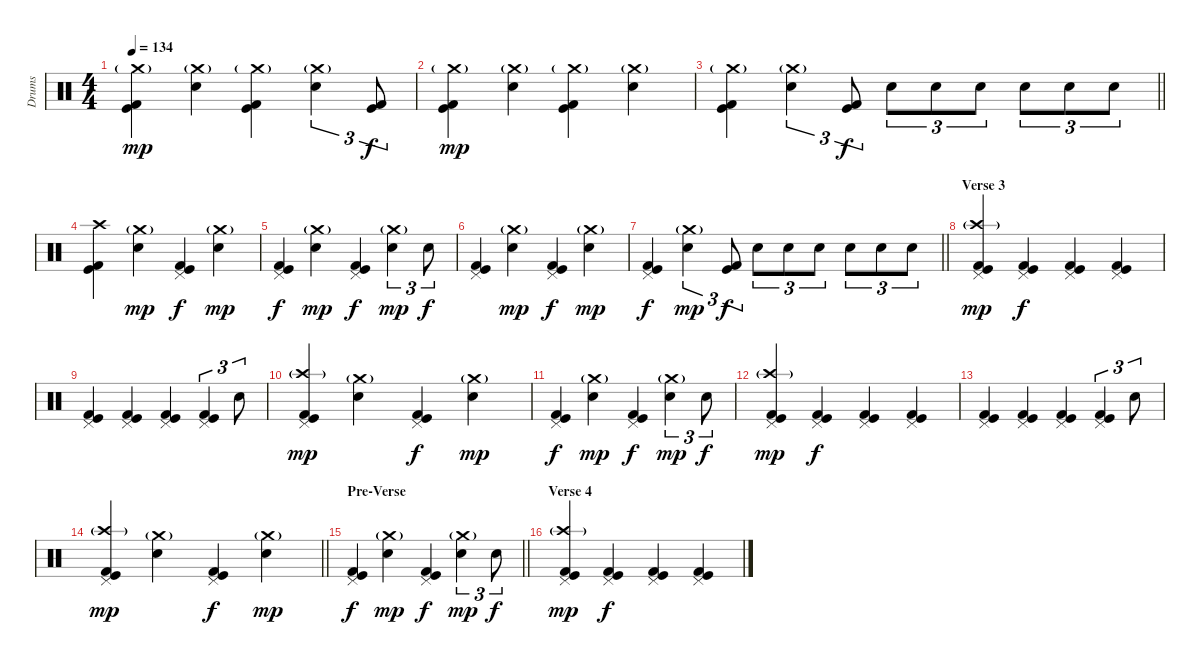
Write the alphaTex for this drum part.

\track ("Drums" "Drums") {instrument percussion}
\staff {score}
\articulation defaults
\ts (4 4)
\tempo 134
\clef neutral
\ks c
("Crash medium (hit)"{g} "Kick (hit)" "Kick (hit) 2").4{dy mp} ("Crash medium (hit)"{g} "Electric Snare (hit)").4 ("Crash medium (hit)"{g} "Kick (hit)" "Kick (hit) 2").4 ("Crash medium (hit)"{g} "Electric Snare (hit)").4{tu (3 2)} ("Kick (hit)" "Kick (hit) 2").8{tu (3 2) dy f} |
("Crash medium (hit)"{g} "Kick (hit)" "Kick (hit) 2").4{dy mp} ("Crash medium (hit)"{g} "Electric Snare (hit)").4 ("Crash medium (hit)"{g} "Kick (hit)" "Kick (hit) 2").4 ("Crash medium (hit)"{g} "Electric Snare (hit)").4 |
\barLineRight lightlight
("Crash medium (hit)"{g} "Kick (hit)" "Kick (hit) 2").4 ("Crash medium (hit)"{g} "Electric Snare (hit)").4{tu (3 2)} ("Kick (hit)" "Kick (hit) 2").8{tu (3 2) dy f} "Electric Snare (hit)".8{tu (3 2)} "Electric Snare (hit)".8{tu (3 2)} "Electric Snare (hit)".8{tu (3 2)} "Electric Snare (hit)".8{tu (3 2)} "Electric Snare (hit)".8{tu (3 2)} "Electric Snare (hit)".8{tu (3 2)} |
("Crash high (hit)" "Kick (hit)" "Kick (hit) 2").4 ("Crash medium (hit)"{g} "Electric Snare (hit)").4{dy mp} ("Pedal Hi-Hat (hit)" "Kick (hit)" "Kick (hit) 2").4{dy f} ("Crash medium (hit)"{g} "Electric Snare (hit)").4{dy mp} |
("Pedal Hi-Hat (hit)" "Kick (hit)" "Kick (hit) 2").4{dy f} ("Crash medium (hit)"{g} "Electric Snare (hit)").4{dy mp} ("Pedal Hi-Hat (hit)" "Kick (hit)" "Kick (hit) 2").4{dy f} ("Crash medium (hit)"{g} "Electric Snare (hit)").4{tu (3 2) dy mp} "Electric Snare (hit)".8{tu (3 2) dy f} |
("Pedal Hi-Hat (hit)" "Kick (hit)" "Kick (hit) 2").4 ("Crash medium (hit)"{g} "Electric Snare (hit)").4{dy mp} ("Pedal Hi-Hat (hit)" "Kick (hit)" "Kick (hit) 2").4{dy f} ("Crash medium (hit)"{g} "Electric Snare (hit)").4{dy mp} |
\barLineRight lightlight
("Pedal Hi-Hat (hit)" "Kick (hit)" "Kick (hit) 2").4{dy f} ("Crash medium (hit)"{g} "Electric Snare (hit)").4{tu (3 2) dy mp} ("Kick (hit)" "Kick (hit) 2").8{tu (3 2) dy f} "Electric Snare (hit)".8{tu (3 2)} "Electric Snare (hit)".8{tu (3 2)} "Electric Snare (hit)".8{tu (3 2)} "Electric Snare (hit)".8{tu (3 2)} "Electric Snare (hit)".8{tu (3 2)} "Electric Snare (hit)".8{tu (3 2)} |
\section ("" "Verse 3")
("Pedal Hi-Hat (hit)" "Crash high (hit)"{g} "Kick (hit)" "Kick (hit) 2").4{dy mp} ("Pedal Hi-Hat (hit)" "Kick (hit)" "Kick (hit) 2").4{dy f} ("Pedal Hi-Hat (hit)" "Kick (hit)" "Kick (hit) 2").4 ("Pedal Hi-Hat (hit)" "Kick (hit)" "Kick (hit) 2").4 |
("Pedal Hi-Hat (hit)" "Kick (hit)" "Kick (hit) 2").4 ("Pedal Hi-Hat (hit)" "Kick (hit)" "Kick (hit) 2").4 ("Pedal Hi-Hat (hit)" "Kick (hit)" "Kick (hit) 2").4 ("Pedal Hi-Hat (hit)" "Kick (hit)" "Kick (hit) 2").4{tu (3 2)} "Electric Snare (hit)".8{tu (3 2)} |
("Pedal Hi-Hat (hit)" "Crash high (hit)"{g} "Kick (hit)" "Kick (hit) 2").4{dy mp} ("Crash medium (hit)"{g} "Electric Snare (hit)").4 ("Pedal Hi-Hat (hit)" "Kick (hit)" "Kick (hit) 2").4{dy f} ("Crash medium (hit)"{g} "Electric Snare (hit)").4{dy mp} |
("Pedal Hi-Hat (hit)" "Kick (hit)" "Kick (hit) 2").4{dy f} ("Crash medium (hit)"{g} "Electric Snare (hit)").4{dy mp} ("Pedal Hi-Hat (hit)" "Kick (hit)" "Kick (hit) 2").4{dy f} ("Crash medium (hit)"{g} "Electric Snare (hit)").4{tu (3 2) dy mp} "Electric Snare (hit)".8{tu (3 2) dy f} |
("Pedal Hi-Hat (hit)" "Crash high (hit)"{g} "Kick (hit)" "Kick (hit) 2").4{dy mp} ("Pedal Hi-Hat (hit)" "Kick (hit)" "Kick (hit) 2").4{dy f} ("Pedal Hi-Hat (hit)" "Kick (hit)" "Kick (hit) 2").4 ("Pedal Hi-Hat (hit)" "Kick (hit)" "Kick (hit) 2").4 |
("Pedal Hi-Hat (hit)" "Kick (hit)" "Kick (hit) 2").4 ("Pedal Hi-Hat (hit)" "Kick (hit)" "Kick (hit) 2").4 ("Pedal Hi-Hat (hit)" "Kick (hit)" "Kick (hit) 2").4 ("Pedal Hi-Hat (hit)" "Kick (hit)" "Kick (hit) 2").4{tu (3 2)} "Electric Snare (hit)".8{tu (3 2)} |
\barLineRight lightlight
("Pedal Hi-Hat (hit)" "Crash high (hit)"{g} "Kick (hit)" "Kick (hit) 2").4{dy mp} ("Crash medium (hit)"{g} "Electric Snare (hit)").4 ("Pedal Hi-Hat (hit)" "Kick (hit)" "Kick (hit) 2").4{dy f} ("Crash medium (hit)"{g} "Electric Snare (hit)").4{dy mp} |
\section ("" "Pre-Verse")
\barLineRight lightlight
("Pedal Hi-Hat (hit)" "Kick (hit)" "Kick (hit) 2").4{dy f} ("Crash medium (hit)"{g} "Electric Snare (hit)").4{dy mp} ("Pedal Hi-Hat (hit)" "Kick (hit)" "Kick (hit) 2").4{dy f} ("Crash medium (hit)"{g} "Electric Snare (hit)").4{tu (3 2) dy mp} "Electric Snare (hit)".8{tu (3 2) dy f} |
\section ("" "Verse 4")
("Pedal Hi-Hat (hit)" "Crash high (hit)"{g} "Kick (hit)" "Kick (hit) 2").4{dy mp} ("Pedal Hi-Hat (hit)" "Kick (hit)" "Kick (hit) 2").4{dy f} ("Pedal Hi-Hat (hit)" "Kick (hit)" "Kick (hit) 2").4 ("Pedal Hi-Hat (hit)" "Kick (hit)" "Kick (hit) 2").4
